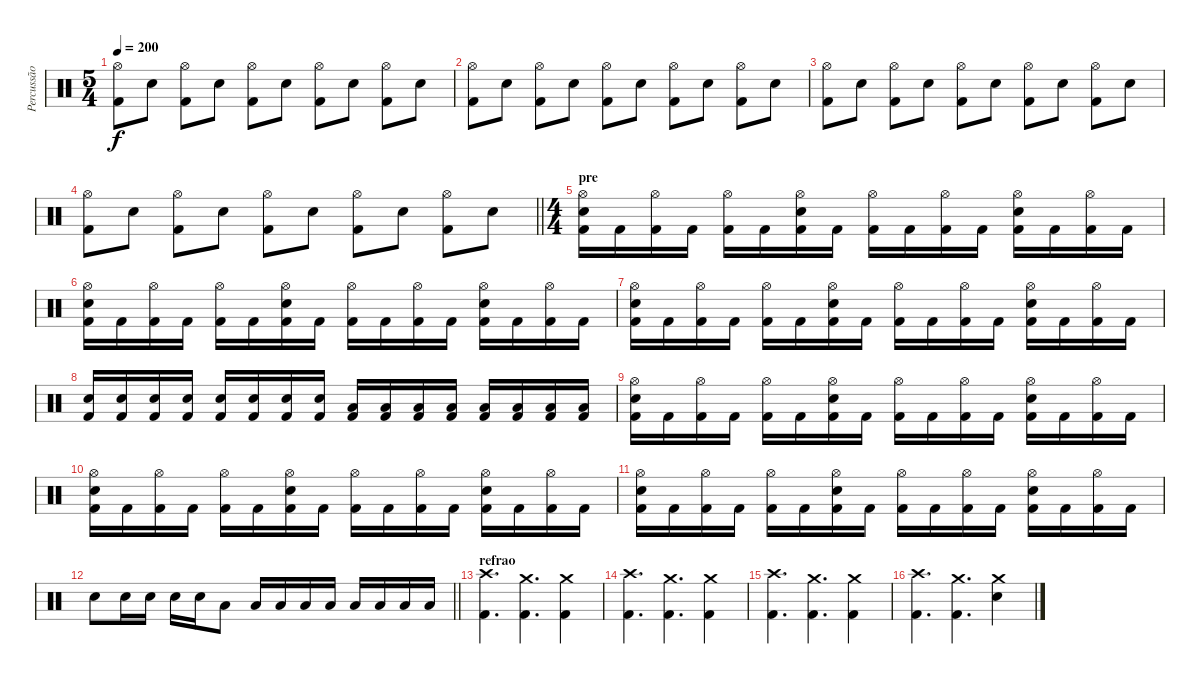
\track ("Percussão" "Percussão") {instrument percussion}
\staff {score}
\articulation defaults
\ts (5 4)
\tempo 200
\clef neutral
\ks c
("Kick (hit) 2" "Hi-Hat (open)").8{dy f} "Snare (hit) 2".8 ("Kick (hit) 2" "Hi-Hat (open)").8 "Snare (hit) 2".8 ("Kick (hit) 2" "Hi-Hat (open)").8 "Snare (hit) 2".8 ("Kick (hit) 2" "Hi-Hat (open)").8 "Snare (hit) 2".8 ("Kick (hit) 2" "Hi-Hat (open)").8 "Snare (hit) 2".8 |
("Kick (hit) 2" "Hi-Hat (open)").8 "Snare (hit) 2".8 ("Kick (hit) 2" "Hi-Hat (open)").8 "Snare (hit) 2".8 ("Kick (hit) 2" "Hi-Hat (open)").8 "Snare (hit) 2".8 ("Kick (hit) 2" "Hi-Hat (open)").8 "Snare (hit) 2".8 ("Kick (hit) 2" "Hi-Hat (open)").8 "Snare (hit) 2".8 |
("Kick (hit) 2" "Hi-Hat (open)").8 "Snare (hit) 2".8 ("Kick (hit) 2" "Hi-Hat (open)").8 "Snare (hit) 2".8 ("Kick (hit) 2" "Hi-Hat (open)").8 "Snare (hit) 2".8 ("Kick (hit) 2" "Hi-Hat (open)").8 "Snare (hit) 2".8 ("Kick (hit) 2" "Hi-Hat (open)").8 "Snare (hit) 2".8 |
\barLineRight lightlight
("Kick (hit) 2" "Hi-Hat (open)").8 "Snare (hit) 2".8 ("Kick (hit) 2" "Hi-Hat (open)").8 "Snare (hit) 2".8 ("Kick (hit) 2" "Hi-Hat (open)").8 "Snare (hit) 2".8 ("Kick (hit) 2" "Hi-Hat (open)").8 "Snare (hit) 2".8 ("Kick (hit) 2" "Hi-Hat (open)").8 "Snare (hit) 2".8 |
\ts (4 4)
\section ("" "pre")
("Kick (hit) 2" "Hi-Hat (open)" "Snare (hit) 2").16 "Kick (hit) 2".16 ("Kick (hit) 2" "Hi-Hat (open)").16 "Kick (hit) 2".16 ("Kick (hit) 2" "Hi-Hat (open)").16 "Kick (hit) 2".16 ("Kick (hit) 2" "Hi-Hat (open)" "Snare (hit) 2").16 "Kick (hit) 2".16 ("Kick (hit) 2" "Hi-Hat (open)").16 "Kick (hit) 2".16 ("Kick (hit) 2" "Hi-Hat (open)").16 "Kick (hit) 2".16 ("Kick (hit) 2" "Hi-Hat (open)" "Snare (hit) 2").16 "Kick (hit) 2".16 ("Kick (hit) 2" "Hi-Hat (open)").16 "Kick (hit) 2".16 |
("Kick (hit) 2" "Hi-Hat (open)" "Snare (hit) 2").16 "Kick (hit) 2".16 ("Kick (hit) 2" "Hi-Hat (open)").16 "Kick (hit) 2".16 ("Kick (hit) 2" "Hi-Hat (open)").16 "Kick (hit) 2".16 ("Kick (hit) 2" "Hi-Hat (open)" "Snare (hit) 2").16 "Kick (hit) 2".16 ("Kick (hit) 2" "Hi-Hat (open)").16 "Kick (hit) 2".16 ("Kick (hit) 2" "Hi-Hat (open)").16 "Kick (hit) 2".16 ("Kick (hit) 2" "Hi-Hat (open)" "Snare (hit) 2").16 "Kick (hit) 2".16 ("Kick (hit) 2" "Hi-Hat (open)").16 "Kick (hit) 2".16 |
("Kick (hit) 2" "Hi-Hat (open)" "Snare (hit) 2").16 "Kick (hit) 2".16 ("Kick (hit) 2" "Hi-Hat (open)").16 "Kick (hit) 2".16 ("Kick (hit) 2" "Hi-Hat (open)").16 "Kick (hit) 2".16 ("Kick (hit) 2" "Hi-Hat (open)" "Snare (hit) 2").16 "Kick (hit) 2".16 ("Kick (hit) 2" "Hi-Hat (open)").16 "Kick (hit) 2".16 ("Kick (hit) 2" "Hi-Hat (open)").16 "Kick (hit) 2".16 ("Kick (hit) 2" "Hi-Hat (open)" "Snare (hit) 2").16 "Kick (hit) 2".16 ("Kick (hit) 2" "Hi-Hat (open)").16 "Kick (hit) 2".16 |
("Kick (hit) 2" "Snare (hit) 2").16 ("Kick (hit) 2" "Snare (hit) 2").16 ("Kick (hit) 2" "Snare (hit) 2").16 ("Kick (hit) 2" "Snare (hit) 2").16 ("Kick (hit) 2" "Snare (hit) 2").16 ("Kick (hit) 2" "Snare (hit) 2").16 ("Kick (hit) 2" "Snare (hit) 2").16 ("Kick (hit) 2" "Snare (hit) 2").16 ("Kick (hit) 2" "Low Tom (hit)").16 ("Kick (hit) 2" "Low Tom (hit)").16 ("Kick (hit) 2" "Low Tom (hit)").16 ("Kick (hit) 2" "Low Tom (hit)").16 ("Kick (hit) 2" "Low Tom (hit)").16 ("Kick (hit) 2" "Low Tom (hit)").16 ("Kick (hit) 2" "Low Tom (hit)").16 ("Kick (hit) 2" "Low Tom (hit)").16 |
("Kick (hit) 2" "Hi-Hat (open)" "Snare (hit) 2").16 "Kick (hit) 2".16 ("Kick (hit) 2" "Hi-Hat (open)").16 "Kick (hit) 2".16 ("Kick (hit) 2" "Hi-Hat (open)").16 "Kick (hit) 2".16 ("Kick (hit) 2" "Hi-Hat (open)" "Snare (hit) 2").16 "Kick (hit) 2".16 ("Kick (hit) 2" "Hi-Hat (open)").16 "Kick (hit) 2".16 ("Kick (hit) 2" "Hi-Hat (open)").16 "Kick (hit) 2".16 ("Kick (hit) 2" "Hi-Hat (open)" "Snare (hit) 2").16 "Kick (hit) 2".16 ("Kick (hit) 2" "Hi-Hat (open)").16 "Kick (hit) 2".16 |
("Kick (hit) 2" "Hi-Hat (open)" "Snare (hit) 2").16 "Kick (hit) 2".16 ("Kick (hit) 2" "Hi-Hat (open)").16 "Kick (hit) 2".16 ("Kick (hit) 2" "Hi-Hat (open)").16 "Kick (hit) 2".16 ("Kick (hit) 2" "Hi-Hat (open)" "Snare (hit) 2").16 "Kick (hit) 2".16 ("Kick (hit) 2" "Hi-Hat (open)").16 "Kick (hit) 2".16 ("Kick (hit) 2" "Hi-Hat (open)").16 "Kick (hit) 2".16 ("Kick (hit) 2" "Hi-Hat (open)" "Snare (hit) 2").16 "Kick (hit) 2".16 ("Kick (hit) 2" "Hi-Hat (open)").16 "Kick (hit) 2".16 |
("Kick (hit) 2" "Hi-Hat (open)" "Snare (hit) 2").16 "Kick (hit) 2".16 ("Kick (hit) 2" "Hi-Hat (open)").16 "Kick (hit) 2".16 ("Kick (hit) 2" "Hi-Hat (open)").16 "Kick (hit) 2".16 ("Kick (hit) 2" "Hi-Hat (open)" "Snare (hit) 2").16 "Kick (hit) 2".16 ("Kick (hit) 2" "Hi-Hat (open)").16 "Kick (hit) 2".16 ("Kick (hit) 2" "Hi-Hat (open)").16 "Kick (hit) 2".16 ("Kick (hit) 2" "Hi-Hat (open)" "Snare (hit) 2").16 "Kick (hit) 2".16 ("Kick (hit) 2" "Hi-Hat (open)").16 "Kick (hit) 2".16 |
\barLineRight lightlight "Snare (hit) 2".8 "Snare (hit) 2".16 "Snare (hit) 2".16 "Snare (hit) 2".16 "Snare (hit) 2".16 "Low Tom (hit)".8 "Low Tom (hit)".16 "Low Tom (hit)".16 "Low Tom (hit)".16 "Low Tom (hit)".16 "Low Floor Tom (hit)".16 "Low Floor Tom (hit)".16 "Low Floor Tom (hit)".16 "Low Floor Tom (hit)".16
|
\section ("" "refrao")
("Crash high (hit)" "Kick (hit) 2").4{d} ("Crash medium (hit)" "Kick (hit) 2").4{d} ("Crash medium (hit)" "Kick (hit) 2").4 |
("Crash high (hit)" "Kick (hit) 2").4{d} ("Crash medium (hit)" "Kick (hit) 2").4{d} ("Crash medium (hit)" "Kick (hit) 2").4 |
("Crash high (hit)" "Kick (hit) 2").4{d} ("Crash medium (hit)" "Kick (hit) 2").4{d} ("Crash medium (hit)" "Kick (hit) 2").4 |
("Crash high (hit)" "Kick (hit) 2").4{d} ("Crash medium (hit)" "Kick (hit) 2").4{d} ("Crash medium (hit)" "Snare (hit) 2").4
